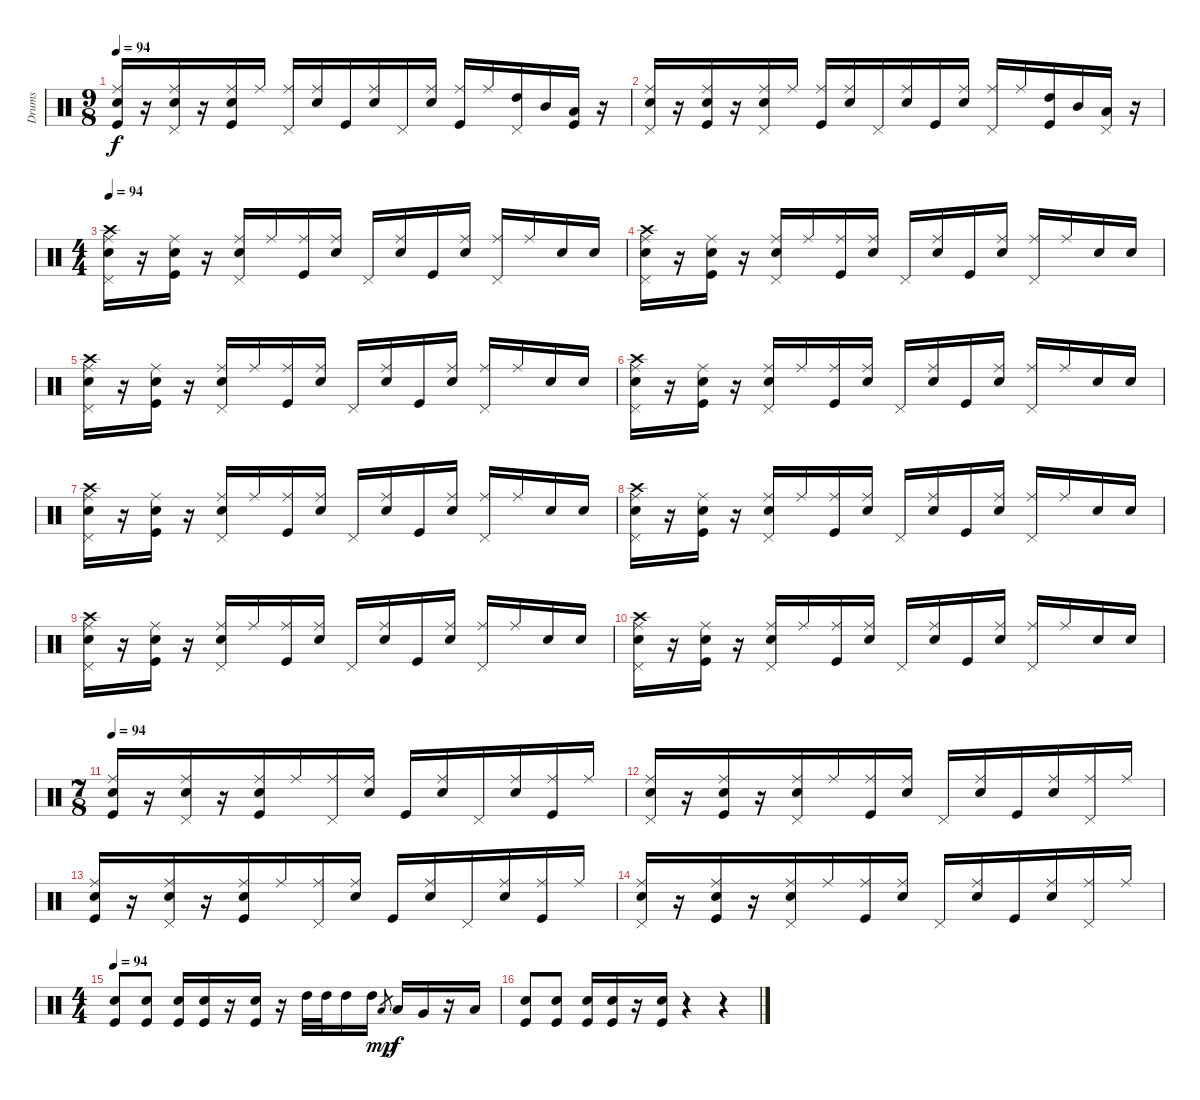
\track ("Drums" "Drums") {instrument percussion}
\staff {score}
\articulation defaults
\ts (9 8)
\tempo 94
\clef neutral
\ks c
("Ride (middle)" "Electric Snare (hit)" "Kick (hit)").16{dy f} r.16 ("Ride (middle)" "Electric Snare (hit)" "Pedal Hi-Hat (hit)").16 r.16 ("Ride (middle)" "Electric Snare (hit)" "Kick (hit)").16 "Ride (middle)".16 ("Ride (middle)" "Pedal Hi-Hat (hit)").16 ("Ride (middle)" "Electric Snare (hit)").16 "Kick (hit)".16 ("Ride (middle)" "Electric Snare (hit)").16 "Pedal Hi-Hat (hit)".16 ("Ride (middle)" "Electric Snare (hit)").16 ("Ride (middle)" "Kick (hit)").16 "Ride (middle)".16 ("High Tom (hit)" "Pedal Hi-Hat (hit)").16 "Mid Tom (hit)".16 ("Low Tom (hit)" "Kick (hit)").16 r.16 |
("Ride (middle)" "Electric Snare (hit)" "Pedal Hi-Hat (hit)").16 r.16 ("Ride (middle)" "Electric Snare (hit)" "Kick (hit)").16 r.16 ("Ride (middle)" "Electric Snare (hit)" "Pedal Hi-Hat (hit)").16 "Ride (middle)".16 ("Ride (middle)" "Kick (hit)").16 ("Ride (middle)" "Electric Snare (hit)").16 "Pedal Hi-Hat (hit)".16 ("Ride (middle)" "Electric Snare (hit)").16 "Kick (hit)".16 ("Ride (middle)" "Electric Snare (hit)").16 ("Ride (middle)" "Pedal Hi-Hat (hit)").16 "Ride (middle)".16 ("High Tom (hit)" "Kick (hit)").16 "Mid Tom (hit)".16 ("Low Tom (hit)" "Pedal Hi-Hat (hit)").16 r.16 |
\ts (4 4)
\tempo 94
("Crash high (hit)" "Ride (middle)" "Electric Snare (hit)" "Pedal Hi-Hat (hit)").16{volume 14} r.16 ("Ride (middle)" "Electric Snare (hit)" "Kick (hit)").16 r.16 ("Ride (middle)" "Electric Snare (hit)" "Pedal Hi-Hat (hit)").16 "Ride (middle)".16 ("Ride (middle)" "Kick (hit)").16 ("Ride (middle)" "Electric Snare (hit)").16 "Pedal Hi-Hat (hit)".16 ("Ride (middle)" "Electric Snare (hit)").16 "Kick (hit)".16 ("Ride (middle)" "Electric Snare (hit)").16 ("Ride (middle)" "Pedal Hi-Hat (hit)").16 "Ride (middle)".16 "Electric Snare (hit)".16 "Electric Snare (hit)".16 |
("Crash high (hit)" "Ride (middle)" "Electric Snare (hit)" "Pedal Hi-Hat (hit)").16 r.16 ("Ride (middle)" "Electric Snare (hit)" "Kick (hit)").16 r.16 ("Ride (middle)" "Electric Snare (hit)" "Pedal Hi-Hat (hit)").16 "Ride (middle)".16 ("Ride (middle)" "Kick (hit)").16 ("Ride (middle)" "Electric Snare (hit)").16 "Pedal Hi-Hat (hit)".16 ("Ride (middle)" "Electric Snare (hit)").16 "Kick (hit)".16 ("Ride (middle)" "Electric Snare (hit)").16 ("Ride (middle)" "Pedal Hi-Hat (hit)").16 "Ride (middle)".16 "Electric Snare (hit)".16 "Electric Snare (hit)".16 |
("Crash high (hit)" "Ride (middle)" "Electric Snare (hit)" "Pedal Hi-Hat (hit)").16 r.16 ("Ride (middle)" "Electric Snare (hit)" "Kick (hit)").16 r.16 ("Ride (middle)" "Electric Snare (hit)" "Pedal Hi-Hat (hit)").16 "Ride (middle)".16 ("Ride (middle)" "Kick (hit)").16 ("Ride (middle)" "Electric Snare (hit)").16 "Pedal Hi-Hat (hit)".16 ("Ride (middle)" "Electric Snare (hit)").16 "Kick (hit)".16 ("Ride (middle)" "Electric Snare (hit)").16 ("Ride (middle)" "Pedal Hi-Hat (hit)").16 "Ride (middle)".16 "Electric Snare (hit)".16 "Electric Snare (hit)".16 |
("Crash high (hit)" "Ride (middle)" "Electric Snare (hit)" "Pedal Hi-Hat (hit)").16 r.16 ("Ride (middle)" "Electric Snare (hit)" "Kick (hit)").16 r.16 ("Ride (middle)" "Electric Snare (hit)" "Pedal Hi-Hat (hit)").16 "Ride (middle)".16 ("Ride (middle)" "Kick (hit)").16 ("Ride (middle)" "Electric Snare (hit)").16 "Pedal Hi-Hat (hit)".16 ("Ride (middle)" "Electric Snare (hit)").16 "Kick (hit)".16 ("Ride (middle)" "Electric Snare (hit)").16 ("Ride (middle)" "Pedal Hi-Hat (hit)").16 "Ride (middle)".16 "Electric Snare (hit)".16 "Electric Snare (hit)".16 |
("Crash high (hit)" "Ride (middle)" "Electric Snare (hit)" "Pedal Hi-Hat (hit)").16 r.16 ("Ride (middle)" "Electric Snare (hit)" "Kick (hit)").16 r.16 ("Ride (middle)" "Electric Snare (hit)" "Pedal Hi-Hat (hit)").16 "Ride (middle)".16 ("Ride (middle)" "Kick (hit)").16 ("Ride (middle)" "Electric Snare (hit)").16 "Pedal Hi-Hat (hit)".16 ("Ride (middle)" "Electric Snare (hit)").16 "Kick (hit)".16 ("Ride (middle)" "Electric Snare (hit)").16 ("Ride (middle)" "Pedal Hi-Hat (hit)").16 "Ride (middle)".16 "Electric Snare (hit)".16 "Electric Snare (hit)".16 |
("Crash high (hit)" "Ride (middle)" "Electric Snare (hit)" "Pedal Hi-Hat (hit)").16 r.16 ("Ride (middle)" "Electric Snare (hit)" "Kick (hit)").16 r.16 ("Ride (middle)" "Electric Snare (hit)" "Pedal Hi-Hat (hit)").16 "Ride (middle)".16 ("Ride (middle)" "Kick (hit)").16 ("Ride (middle)" "Electric Snare (hit)").16 "Pedal Hi-Hat (hit)".16 ("Ride (middle)" "Electric Snare (hit)").16 "Kick (hit)".16 ("Ride (middle)" "Electric Snare (hit)").16 ("Ride (middle)" "Pedal Hi-Hat (hit)").16 "Ride (middle)".16 "Electric Snare (hit)".16 "Electric Snare (hit)".16 |
("Crash high (hit)" "Ride (middle)" "Electric Snare (hit)" "Pedal Hi-Hat (hit)").16 r.16 ("Ride (middle)" "Electric Snare (hit)" "Kick (hit)").16 r.16 ("Ride (middle)" "Electric Snare (hit)" "Pedal Hi-Hat (hit)").16 "Ride (middle)".16 ("Ride (middle)" "Kick (hit)").16 ("Ride (middle)" "Electric Snare (hit)").16 "Pedal Hi-Hat (hit)".16 ("Ride (middle)" "Electric Snare (hit)").16 "Kick (hit)".16 ("Ride (middle)" "Electric Snare (hit)").16 ("Ride (middle)" "Pedal Hi-Hat (hit)").16 "Ride (middle)".16 "Electric Snare (hit)".16 "Electric Snare (hit)".16 |
("Crash high (hit)" "Ride (middle)" "Electric Snare (hit)" "Pedal Hi-Hat (hit)").16 r.16 ("Ride (middle)" "Electric Snare (hit)" "Kick (hit)").16 r.16 ("Ride (middle)" "Electric Snare (hit)" "Pedal Hi-Hat (hit)").16 "Ride (middle)".16 ("Ride (middle)" "Kick (hit)").16 ("Ride (middle)" "Electric Snare (hit)").16 "Pedal Hi-Hat (hit)".16 ("Ride (middle)" "Electric Snare (hit)").16 "Kick (hit)".16 ("Ride (middle)" "Electric Snare (hit)").16 ("Ride (middle)" "Pedal Hi-Hat (hit)").16 "Ride (middle)".16 "Electric Snare (hit)".16 "Electric Snare (hit)".16 |
\ts (7 8)
\tempo 94
("Ride (middle)" "Electric Snare (hit)" "Kick (hit)").16{volume 16} r.16 ("Ride (middle)" "Electric Snare (hit)" "Pedal Hi-Hat (hit)").16 r.16 ("Ride (middle)" "Electric Snare (hit)" "Kick (hit)").16 "Ride (middle)".16 ("Ride (middle)" "Pedal Hi-Hat (hit)").16 ("Ride (middle)" "Electric Snare (hit)").16 "Kick (hit)".16 ("Ride (middle)" "Electric Snare (hit)").16 "Pedal Hi-Hat (hit)".16 ("Ride (middle)" "Electric Snare (hit)").16 ("Ride (middle)" "Kick (hit)").16 "Ride (middle)".16 |
("Ride (middle)" "Electric Snare (hit)" "Pedal Hi-Hat (hit)").16 r.16 ("Ride (middle)" "Electric Snare (hit)" "Kick (hit)").16 r.16 ("Ride (middle)" "Electric Snare (hit)" "Pedal Hi-Hat (hit)").16 "Ride (middle)".16 ("Ride (middle)" "Kick (hit)").16 ("Ride (middle)" "Electric Snare (hit)").16 "Pedal Hi-Hat (hit)".16 ("Ride (middle)" "Electric Snare (hit)").16 "Kick (hit)".16 ("Ride (middle)" "Electric Snare (hit)").16 ("Ride (middle)" "Pedal Hi-Hat (hit)").16 "Ride (middle)".16 |
("Ride (middle)" "Electric Snare (hit)" "Kick (hit)").16 r.16 ("Ride (middle)" "Electric Snare (hit)" "Pedal Hi-Hat (hit)").16 r.16 ("Ride (middle)" "Electric Snare (hit)" "Kick (hit)").16 "Ride (middle)".16 ("Ride (middle)" "Pedal Hi-Hat (hit)").16 ("Ride (middle)" "Electric Snare (hit)").16 "Kick (hit)".16 ("Ride (middle)" "Electric Snare (hit)").16 "Pedal Hi-Hat (hit)".16 ("Ride (middle)" "Electric Snare (hit)").16 ("Ride (middle)" "Kick (hit)").16 "Ride (middle)".16 |
("Ride (middle)" "Electric Snare (hit)" "Pedal Hi-Hat (hit)").16 r.16 ("Ride (middle)" "Electric Snare (hit)" "Kick (hit)").16 r.16 ("Ride (middle)" "Electric Snare (hit)" "Pedal Hi-Hat (hit)").16 "Ride (middle)".16 ("Ride (middle)" "Kick (hit)").16 ("Ride (middle)" "Electric Snare (hit)").16 "Pedal Hi-Hat (hit)".16 ("Ride (middle)" "Electric Snare (hit)").16 "Kick (hit)".16 ("Ride (middle)" "Electric Snare (hit)").16 ("Ride (middle)" "Pedal Hi-Hat (hit)").16 "Ride (middle)".16 |
\ts (4 4)
\tempo 94
("Electric Snare (hit)" "Kick (hit)").8 ("Electric Snare (hit)" "Kick (hit)").8 ("Electric Snare (hit)" "Kick (hit)").16 ("Electric Snare (hit)" "Kick (hit)").16 r.16 ("Electric Snare (hit)" "Kick (hit)").16 r.16 "High Tom (hit)".32 "High Tom (hit)".32 "High Tom (hit)".16 "High Tom (hit)".16 "Low Tom (hit)".8{gr dy mp} "Low Tom (hit)".16{dy f} "Very Low Tom (hit)".16 r.16 "Low Floor Tom (hit)".16 |
("Electric Snare (hit)" "Kick (hit)").8 ("Electric Snare (hit)" "Kick (hit)").8 ("Electric Snare (hit)" "Kick (hit)").16 ("Electric Snare (hit)" "Kick (hit)").16 r.16 ("Electric Snare (hit)" "Kick (hit)").16 r.4 r.4
